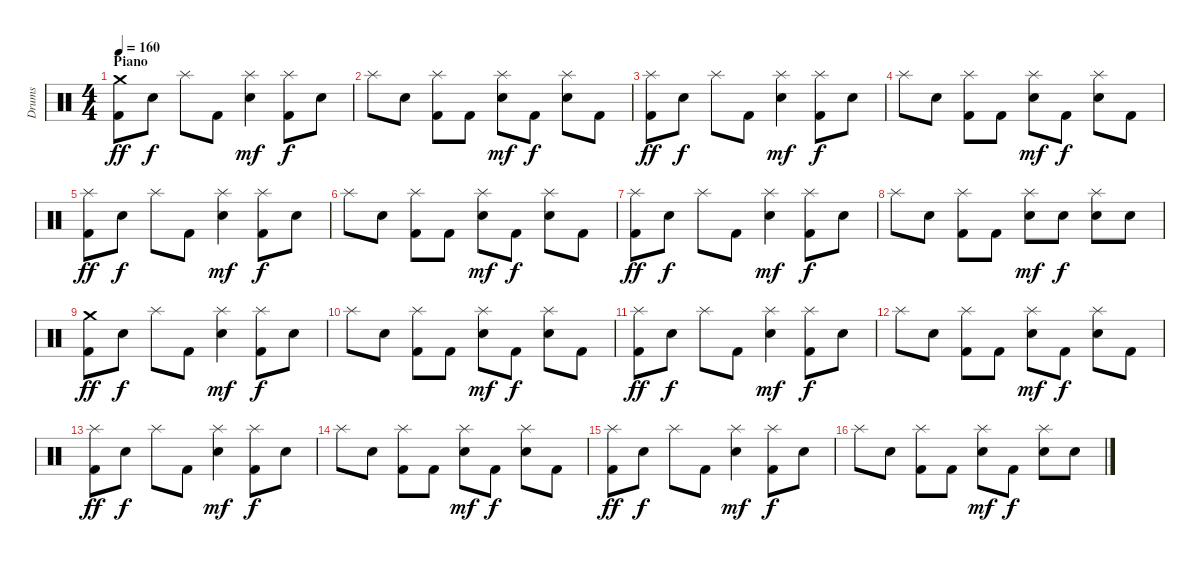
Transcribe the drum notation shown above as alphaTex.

\track ("Drums" "Drums") {instrument percussion}
\staff {score}
\articulation defaults
\ts (4 4)
\section ("" "Piano")
\tempo 160
\clef neutral
\ks c
("Crash medium (hit)" "Kick (hit) 2").8{dy ff} "Electric Snare (hit)".8{dy f} "Splash (hit)".8 "Kick (hit) 2".8 ("Splash (hit)" "Electric Snare (hit)").4{dy mf} ("Splash (hit)" "Kick (hit) 2").8{dy f} "Electric Snare (hit)".8 |
"Splash (hit)".8 "Electric Snare (hit)".8 ("Splash (hit)" "Kick (hit) 2").8 "Kick (hit) 2".8 ("Splash (hit)" "Electric Snare (hit)").8{dy mf} "Kick (hit) 2".8{dy f} ("Splash (hit)" "Electric Snare (hit)").8 "Kick (hit) 2".8 |
("Splash (hit)" "Kick (hit) 2").8{dy ff} "Electric Snare (hit)".8{dy f} "Splash (hit)".8 "Kick (hit) 2".8 ("Splash (hit)" "Electric Snare (hit)").4{dy mf} ("Splash (hit)" "Kick (hit) 2").8{dy f} "Electric Snare (hit)".8 |
"Splash (hit)".8 "Electric Snare (hit)".8 ("Splash (hit)" "Kick (hit) 2").8 "Kick (hit) 2".8 ("Splash (hit)" "Electric Snare (hit)").8{dy mf} "Kick (hit) 2".8{dy f} ("Splash (hit)" "Electric Snare (hit)").8 "Kick (hit) 2".8 |
("Splash (hit)" "Kick (hit) 2").8{dy ff} "Electric Snare (hit)".8{dy f} "Splash (hit)".8 "Kick (hit) 2".8 ("Splash (hit)" "Electric Snare (hit)").4{dy mf} ("Splash (hit)" "Kick (hit) 2").8{dy f} "Electric Snare (hit)".8 |
"Splash (hit)".8 "Electric Snare (hit)".8 ("Splash (hit)" "Kick (hit) 2").8 "Kick (hit) 2".8 ("Splash (hit)" "Electric Snare (hit)").8{dy mf} "Kick (hit) 2".8{dy f} ("Splash (hit)" "Electric Snare (hit)").8 "Kick (hit) 2".8 |
("Splash (hit)" "Kick (hit) 2").8{dy ff} "Electric Snare (hit)".8{dy f} "Splash (hit)".8 "Kick (hit) 2".8 ("Splash (hit)" "Electric Snare (hit)").4{dy mf} ("Splash (hit)" "Kick (hit) 2").8{dy f} "Electric Snare (hit)".8 |
"Splash (hit)".8 "Electric Snare (hit)".8 ("Splash (hit)" "Kick (hit) 2").8 "Kick (hit) 2".8 ("Splash (hit)" "Electric Snare (hit)").8{dy mf} "Electric Snare (hit)".8{dy f} ("Splash (hit)" "Electric Snare (hit)").8 "Electric Snare (hit)".8 |
("Crash medium (hit)" "Kick (hit) 2").8{dy ff} "Electric Snare (hit)".8{dy f} "Splash (hit)".8 "Kick (hit) 2".8 ("Splash (hit)" "Electric Snare (hit)").4{dy mf} ("Splash (hit)" "Kick (hit) 2").8{dy f} "Electric Snare (hit)".8 |
"Splash (hit)".8 "Electric Snare (hit)".8 ("Splash (hit)" "Kick (hit) 2").8 "Kick (hit) 2".8 ("Splash (hit)" "Electric Snare (hit)").8{dy mf} "Kick (hit) 2".8{dy f} ("Splash (hit)" "Electric Snare (hit)").8 "Kick (hit) 2".8 |
("Splash (hit)" "Kick (hit) 2").8{dy ff} "Electric Snare (hit)".8{dy f} "Splash (hit)".8 "Kick (hit) 2".8 ("Splash (hit)" "Electric Snare (hit)").4{dy mf} ("Splash (hit)" "Kick (hit) 2").8{dy f} "Electric Snare (hit)".8 |
"Splash (hit)".8 "Electric Snare (hit)".8 ("Splash (hit)" "Kick (hit) 2").8 "Kick (hit) 2".8 ("Splash (hit)" "Electric Snare (hit)").8{dy mf} "Kick (hit) 2".8{dy f} ("Splash (hit)" "Electric Snare (hit)").8 "Kick (hit) 2".8 |
("Splash (hit)" "Kick (hit) 2").8{dy ff} "Electric Snare (hit)".8{dy f} "Splash (hit)".8 "Kick (hit) 2".8 ("Splash (hit)" "Electric Snare (hit)").4{dy mf} ("Splash (hit)" "Kick (hit) 2").8{dy f} "Electric Snare (hit)".8 |
"Splash (hit)".8 "Electric Snare (hit)".8 ("Splash (hit)" "Kick (hit) 2").8 "Kick (hit) 2".8 ("Splash (hit)" "Electric Snare (hit)").8{dy mf} "Kick (hit) 2".8{dy f} ("Splash (hit)" "Electric Snare (hit)").8 "Kick (hit) 2".8 |
("Splash (hit)" "Kick (hit) 2").8{dy ff} "Electric Snare (hit)".8{dy f} "Splash (hit)".8 "Kick (hit) 2".8 ("Splash (hit)" "Electric Snare (hit)").4{dy mf} ("Splash (hit)" "Kick (hit) 2").8{dy f} "Electric Snare (hit)".8 |
"Splash (hit)".8 "Electric Snare (hit)".8 ("Splash (hit)" "Kick (hit) 2").8 "Kick (hit) 2".8 ("Splash (hit)" "Electric Snare (hit)").8{dy mf} "Kick (hit) 2".8{dy f} ("Splash (hit)" "Electric Snare (hit)").8 "Electric Snare (hit)".8
